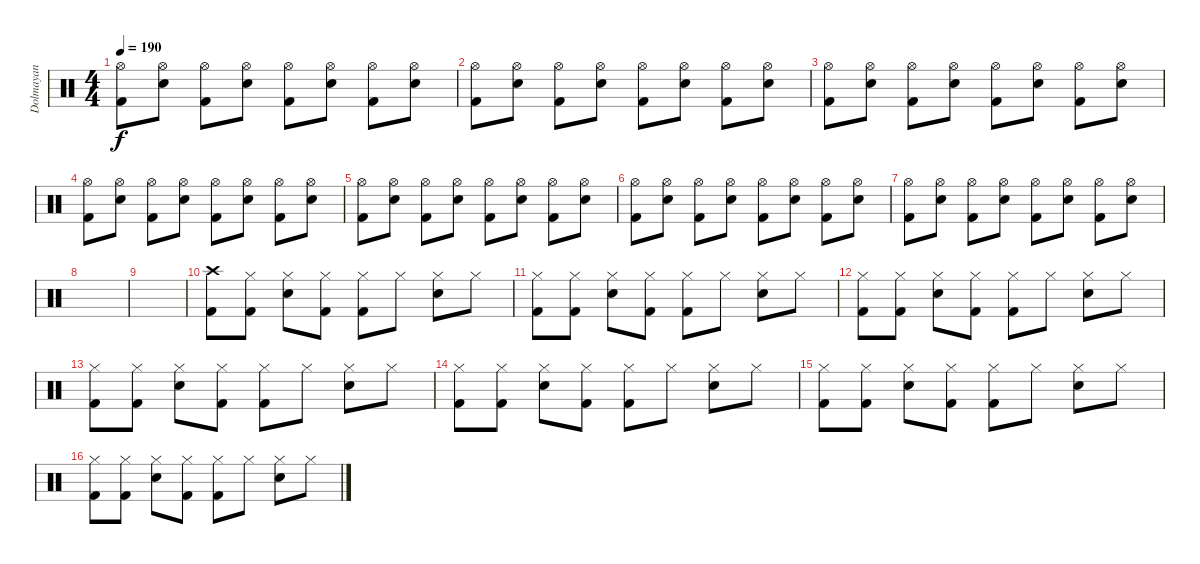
\track ("Dolmayan" "Dolmayan") {instrument percussion}
\staff {score}
\articulation defaults
\ts (4 4)
\tempo 190
\clef neutral
\ks c
("Hi-Hat (open)" "Kick (hit) 2").8{dy f} ("Hi-Hat (open)" "Electric Snare (hit)").8 ("Hi-Hat (open)" "Kick (hit) 2").8 ("Hi-Hat (open)" "Electric Snare (hit)").8 ("Hi-Hat (open)" "Kick (hit) 2").8 ("Hi-Hat (open)" "Electric Snare (hit)").8 ("Hi-Hat (open)" "Kick (hit) 2").8 ("Hi-Hat (open)" "Electric Snare (hit)").8 |
("Hi-Hat (open)" "Kick (hit) 2").8 ("Hi-Hat (open)" "Electric Snare (hit)").8 ("Hi-Hat (open)" "Kick (hit) 2").8 ("Hi-Hat (open)" "Electric Snare (hit)").8 ("Hi-Hat (open)" "Kick (hit) 2").8 ("Hi-Hat (open)" "Electric Snare (hit)").8 ("Hi-Hat (open)" "Kick (hit) 2").8 ("Hi-Hat (open)" "Electric Snare (hit)").8 |
("Hi-Hat (open)" "Kick (hit) 2").8 ("Hi-Hat (open)" "Electric Snare (hit)").8 ("Hi-Hat (open)" "Kick (hit) 2").8 ("Hi-Hat (open)" "Electric Snare (hit)").8 ("Hi-Hat (open)" "Kick (hit) 2").8 ("Hi-Hat (open)" "Electric Snare (hit)").8 ("Hi-Hat (open)" "Kick (hit) 2").8 ("Hi-Hat (open)" "Electric Snare (hit)").8 |
("Hi-Hat (open)" "Kick (hit) 2").8 ("Hi-Hat (open)" "Electric Snare (hit)").8 ("Hi-Hat (open)" "Kick (hit) 2").8 ("Hi-Hat (open)" "Electric Snare (hit)").8 ("Hi-Hat (open)" "Kick (hit) 2").8 ("Hi-Hat (open)" "Electric Snare (hit)").8 ("Hi-Hat (open)" "Kick (hit) 2").8 ("Hi-Hat (open)" "Electric Snare (hit)").8 |
("Hi-Hat (open)" "Kick (hit) 2").8 ("Hi-Hat (open)" "Electric Snare (hit)").8 ("Hi-Hat (open)" "Kick (hit) 2").8 ("Hi-Hat (open)" "Electric Snare (hit)").8 ("Hi-Hat (open)" "Kick (hit) 2").8 ("Hi-Hat (open)" "Electric Snare (hit)").8 ("Hi-Hat (open)" "Kick (hit) 2").8 ("Hi-Hat (open)" "Electric Snare (hit)").8 |
("Hi-Hat (open)" "Kick (hit) 2").8 ("Hi-Hat (open)" "Electric Snare (hit)").8 ("Hi-Hat (open)" "Kick (hit) 2").8 ("Hi-Hat (open)" "Electric Snare (hit)").8 ("Hi-Hat (open)" "Kick (hit) 2").8 ("Hi-Hat (open)" "Electric Snare (hit)").8 ("Hi-Hat (open)" "Kick (hit) 2").8 ("Hi-Hat (open)" "Electric Snare (hit)").8 |
("Hi-Hat (open)" "Kick (hit) 2").8 ("Hi-Hat (open)" "Electric Snare (hit)").8 ("Hi-Hat (open)" "Kick (hit) 2").8 ("Hi-Hat (open)" "Electric Snare (hit)").8 ("Hi-Hat (open)" "Kick (hit) 2").8 ("Hi-Hat (open)" "Electric Snare (hit)").8 ("Hi-Hat (open)" "Kick (hit) 2").8 ("Hi-Hat (open)" "Electric Snare (hit)").8 |
|
|
("Crash high (hit)" "Kick (hit) 2").8 ("Hi-Hat (closed)" "Kick (hit) 2").8 ("Hi-Hat (closed)" "Electric Snare (hit)").8 ("Hi-Hat (closed)" "Kick (hit) 2").8 ("Hi-Hat (closed)" "Kick (hit) 2").8 "Hi-Hat (closed)".8 ("Hi-Hat (closed)" "Electric Snare (hit)").8 "Hi-Hat (closed)".8 |
("Hi-Hat (closed)" "Kick (hit) 2").8 ("Hi-Hat (closed)" "Kick (hit) 2").8 ("Hi-Hat (closed)" "Electric Snare (hit)").8 ("Hi-Hat (closed)" "Kick (hit) 2").8 ("Hi-Hat (closed)" "Kick (hit) 2").8 "Hi-Hat (closed)".8 ("Hi-Hat (closed)" "Electric Snare (hit)").8 "Hi-Hat (closed)".8 |
("Hi-Hat (closed)" "Kick (hit) 2").8 ("Hi-Hat (closed)" "Kick (hit) 2").8 ("Hi-Hat (closed)" "Electric Snare (hit)").8 ("Hi-Hat (closed)" "Kick (hit) 2").8 ("Hi-Hat (closed)" "Kick (hit) 2").8 "Hi-Hat (closed)".8 ("Hi-Hat (closed)" "Electric Snare (hit)").8 "Hi-Hat (closed)".8 |
("Hi-Hat (closed)" "Kick (hit) 2").8 ("Hi-Hat (closed)" "Kick (hit) 2").8 ("Hi-Hat (closed)" "Electric Snare (hit)").8 ("Hi-Hat (closed)" "Kick (hit) 2").8 ("Hi-Hat (closed)" "Kick (hit) 2").8 "Hi-Hat (closed)".8 ("Hi-Hat (closed)" "Electric Snare (hit)").8 "Hi-Hat (closed)".8 |
("Hi-Hat (closed)" "Kick (hit) 2").8 ("Hi-Hat (closed)" "Kick (hit) 2").8 ("Hi-Hat (closed)" "Electric Snare (hit)").8 ("Hi-Hat (closed)" "Kick (hit) 2").8 ("Hi-Hat (closed)" "Kick (hit) 2").8 "Hi-Hat (closed)".8 ("Hi-Hat (closed)" "Electric Snare (hit)").8 "Hi-Hat (closed)".8 |
("Hi-Hat (closed)" "Kick (hit) 2").8 ("Hi-Hat (closed)" "Kick (hit) 2").8 ("Hi-Hat (closed)" "Electric Snare (hit)").8 ("Hi-Hat (closed)" "Kick (hit) 2").8 ("Hi-Hat (closed)" "Kick (hit) 2").8 "Hi-Hat (closed)".8 ("Hi-Hat (closed)" "Electric Snare (hit)").8 "Hi-Hat (closed)".8 |
("Hi-Hat (closed)" "Kick (hit) 2").8 ("Hi-Hat (closed)" "Kick (hit) 2").8 ("Hi-Hat (closed)" "Electric Snare (hit)").8 ("Hi-Hat (closed)" "Kick (hit) 2").8 ("Hi-Hat (closed)" "Kick (hit) 2").8 "Hi-Hat (closed)".8 ("Hi-Hat (closed)" "Electric Snare (hit)").8 "Hi-Hat (closed)".8
